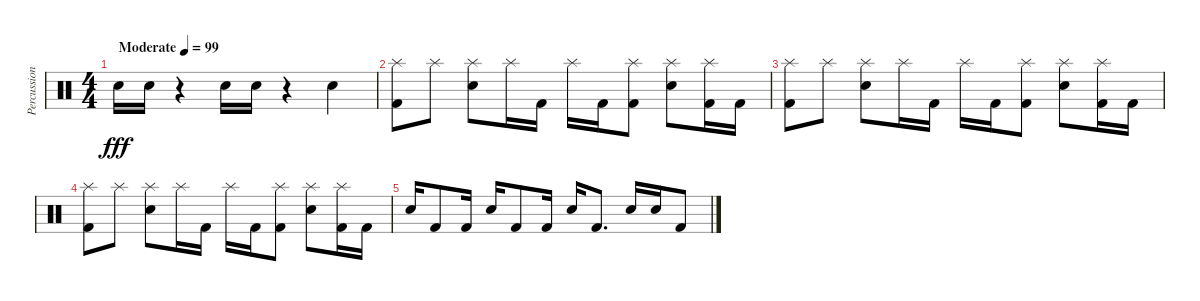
\track ("Percussion" "Percussion") {instrument percussion}
\staff {score}
\articulation defaults
\ts (4 4)
\tempo (99 "Moderate")
\clef neutral
\ks c "Snare (hit) 2".16{dy fff} "Snare (hit) 2".16
r.4 "Snare (hit) 2".16 "Snare (hit) 2".16 r.4 "Snare (hit) 2".4 |
("Splash (hit)" "Kick (hit) 2").8 "Splash (hit)".8 ("Splash (hit)" "Snare (hit) 2").8 "Splash (hit)".16 "Kick (hit) 2".16 "Splash (hit)".16 "Kick (hit) 2".16 ("Splash (hit)" "Kick (hit) 2").8 ("Splash (hit)" "Snare (hit) 2").8 ("Splash (hit)" "Kick (hit) 2").16 "Kick (hit) 2".16 |
("Splash (hit)" "Kick (hit) 2").8 "Splash (hit)".8 ("Splash (hit)" "Snare (hit) 2").8 "Splash (hit)".16 "Kick (hit) 2".16 "Splash (hit)".16 "Kick (hit) 2".16 ("Splash (hit)" "Kick (hit) 2").8 ("Splash (hit)" "Snare (hit) 2").8 ("Splash (hit)" "Kick (hit) 2").16 "Kick (hit) 2".16 |
("Splash (hit)" "Kick (hit) 2").8 "Splash (hit)".8 ("Splash (hit)" "Snare (hit) 2").8 "Splash (hit)".16 "Kick (hit) 2".16 "Splash (hit)".16 "Kick (hit) 2".16 ("Splash (hit)" "Kick (hit) 2").8 ("Splash (hit)" "Snare (hit) 2").8 ("Splash (hit)" "Kick (hit) 2").16 "Kick (hit) 2".16 |
"Snare (hit) 2".16 "Kick (hit) 2".8 "Kick (hit) 2".16 "Snare (hit) 2".16 "Kick (hit) 2".8 "Kick (hit) 2".16 "Snare (hit) 2".16 "Kick (hit) 2".8{d} "Snare (hit) 2".16 "Snare (hit) 2".16 "Kick (hit) 2".8
